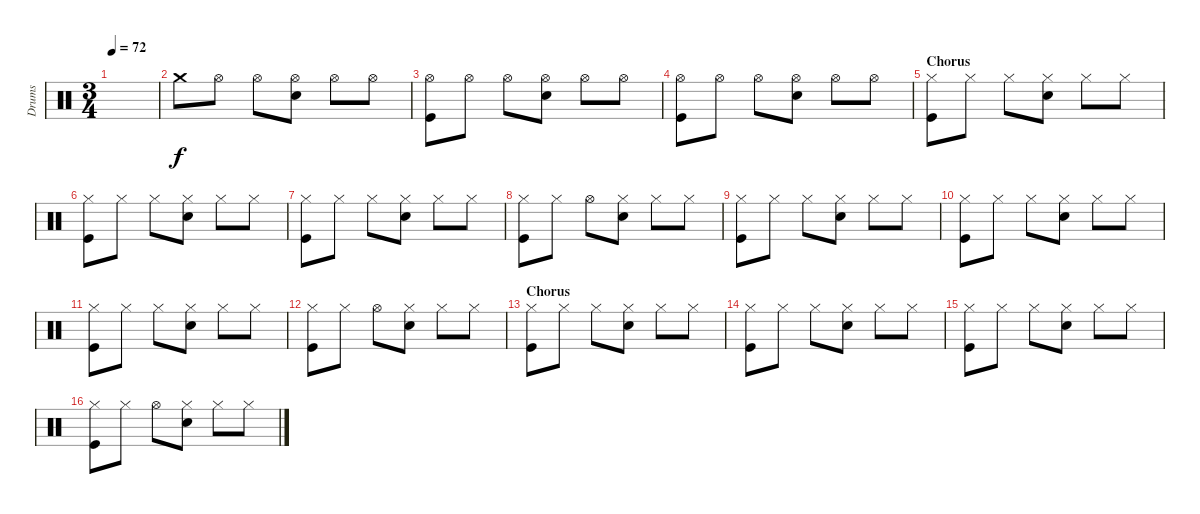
\track ("Drums" "Drums") {instrument percussion}
\staff {score}
\articulation defaults
\ts (3 4)
\tempo 72
\clef neutral
\ks c
|
"Crash medium (hit)".8 "Hi-Hat (open)".8 "Hi-Hat (open)".8 ("Hi-Hat (open)" "Snare (hit) 2").8 "Hi-Hat (open)".8 "Hi-Hat (open)".8 |
("Hi-Hat (open)" "Kick (hit)").8 "Hi-Hat (open)".8 "Hi-Hat (open)".8 ("Hi-Hat (open)" "Snare (hit) 2").8 "Hi-Hat (open)".8 "Hi-Hat (open)".8 |
("Hi-Hat (open)" "Kick (hit)").8 "Hi-Hat (open)".8 "Hi-Hat (open)".8 ("Hi-Hat (open)" "Snare (hit) 2").8 "Hi-Hat (open)".8 "Hi-Hat (open)".8 |
\section ("" "Chorus")
("Hi-Hat (closed)" "Kick (hit)").8 "Hi-Hat (closed)".8 "Hi-Hat (closed)".8 ("Hi-Hat (closed)" "Snare (hit) 2").8 "Hi-Hat (closed)".8 "Hi-Hat (closed)".8 |
("Hi-Hat (closed)" "Kick (hit)").8 "Hi-Hat (closed)".8 "Hi-Hat (closed)".8 ("Hi-Hat (closed)" "Snare (hit) 2").8 "Hi-Hat (closed)".8 "Hi-Hat (closed)".8 |
("Hi-Hat (closed)" "Kick (hit)").8 "Hi-Hat (closed)".8 "Hi-Hat (closed)".8 ("Hi-Hat (closed)" "Snare (hit) 2").8 "Hi-Hat (closed)".8 "Hi-Hat (closed)".8 |
("Hi-Hat (closed)" "Kick (hit)").8 "Hi-Hat (closed)".8 "Hi-Hat (open)".8 ("Hi-Hat (closed)" "Snare (hit) 2").8 "Hi-Hat (closed)".8 "Hi-Hat (closed)".8 |
("Hi-Hat (closed)" "Kick (hit)").8 "Hi-Hat (closed)".8 "Hi-Hat (closed)".8 ("Hi-Hat (closed)" "Snare (hit) 2").8 "Hi-Hat (closed)".8 "Hi-Hat (closed)".8 |
("Hi-Hat (closed)" "Kick (hit)").8 "Hi-Hat (closed)".8 "Hi-Hat (closed)".8 ("Hi-Hat (closed)" "Snare (hit) 2").8 "Hi-Hat (closed)".8 "Hi-Hat (closed)".8 |
("Hi-Hat (closed)" "Kick (hit)").8 "Hi-Hat (closed)".8 "Hi-Hat (closed)".8 ("Hi-Hat (closed)" "Snare (hit) 2").8 "Hi-Hat (closed)".8 "Hi-Hat (closed)".8 |
("Hi-Hat (closed)" "Kick (hit)").8 "Hi-Hat (closed)".8 "Hi-Hat (open)".8 ("Hi-Hat (closed)" "Snare (hit) 2").8 "Hi-Hat (closed)".8 "Hi-Hat (closed)".8 |
\section ("" "Chorus")
("Hi-Hat (closed)" "Kick (hit)").8 "Hi-Hat (closed)".8 "Hi-Hat (closed)".8 ("Hi-Hat (closed)" "Snare (hit) 2").8 "Hi-Hat (closed)".8 "Hi-Hat (closed)".8 |
("Hi-Hat (closed)" "Kick (hit)").8 "Hi-Hat (closed)".8 "Hi-Hat (closed)".8 ("Hi-Hat (closed)" "Snare (hit) 2").8 "Hi-Hat (closed)".8 "Hi-Hat (closed)".8 |
("Hi-Hat (closed)" "Kick (hit)").8 "Hi-Hat (closed)".8 "Hi-Hat (closed)".8 ("Hi-Hat (closed)" "Snare (hit) 2").8 "Hi-Hat (closed)".8 "Hi-Hat (closed)".8 |
("Hi-Hat (closed)" "Kick (hit)").8 "Hi-Hat (closed)".8 "Hi-Hat (open)".8 ("Hi-Hat (closed)" "Snare (hit) 2").8 "Hi-Hat (closed)".8 "Hi-Hat (closed)".8
